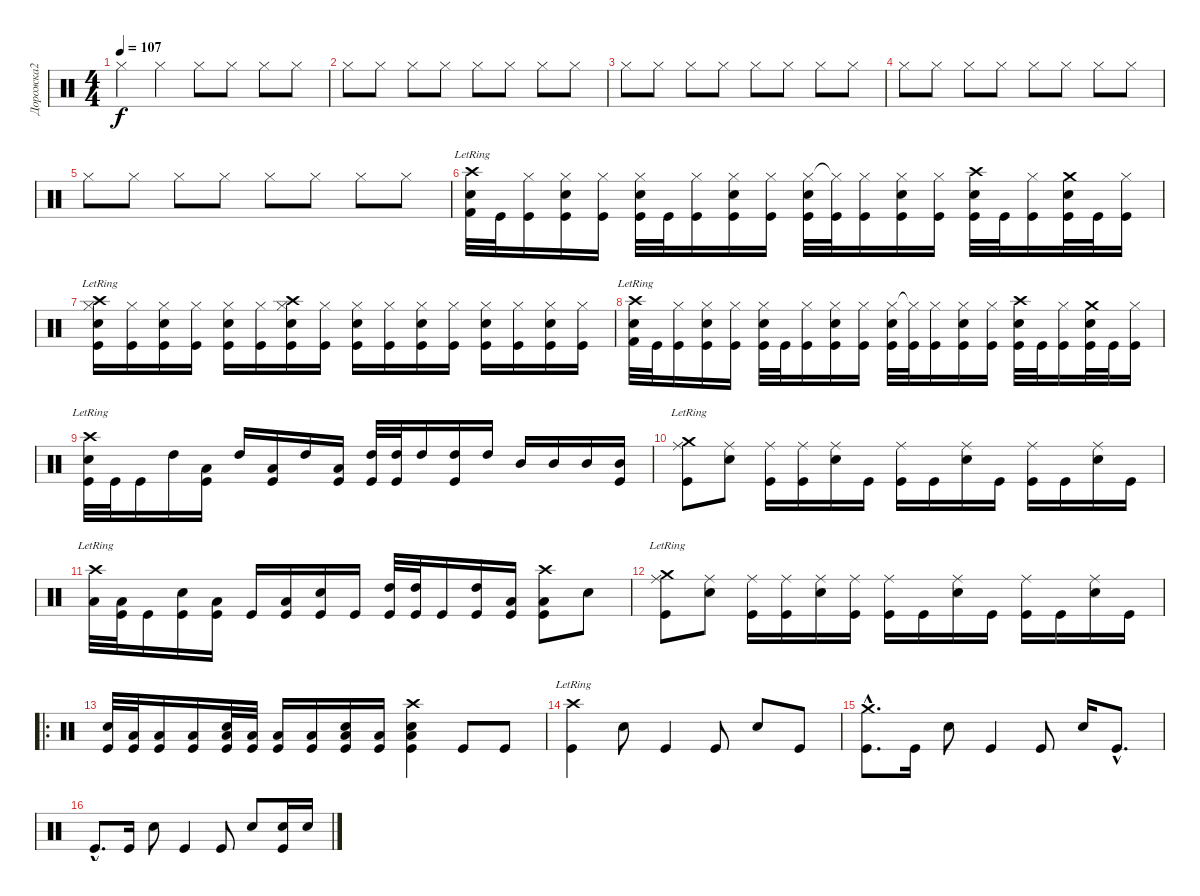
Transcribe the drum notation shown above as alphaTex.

\track ("Дорожка2" "Дорожка2") {instrument percussion}
\staff {score}
\articulation defaults
\ts (4 4)
\tempo 107
\clef neutral
\ks c "Hi-Hat (closed)".4{dy f} "Hi-Hat (closed)".4 "Hi-Hat (closed)".8 "Hi-Hat (closed)".8 "Hi-Hat (closed)".8 "Hi-Hat (closed)".8
|
"Hi-Hat (closed)".8 "Hi-Hat (closed)".8 "Hi-Hat (closed)".8 "Hi-Hat (closed)".8 "Hi-Hat (closed)".8 "Hi-Hat (closed)".8 "Hi-Hat (closed)".8 "Hi-Hat (closed)".8 |
"Hi-Hat (closed)".8 "Hi-Hat (closed)".8 "Hi-Hat (closed)".8 "Hi-Hat (closed)".8 "Hi-Hat (closed)".8 "Hi-Hat (closed)".8 "Hi-Hat (closed)".8 "Hi-Hat (closed)".8 |
"Hi-Hat (closed)".8 "Hi-Hat (closed)".8 "Hi-Hat (closed)".8 "Hi-Hat (closed)".8 "Hi-Hat (closed)".8 "Hi-Hat (closed)".8 "Hi-Hat (closed)".8 "Hi-Hat (closed)".8 |
"Hi-Hat (closed)".8 "Hi-Hat (closed)".8 "Hi-Hat (closed)".8 "Hi-Hat (closed)".8 "Hi-Hat (closed)".8 "Hi-Hat (closed)".8 "Hi-Hat (closed)".8 "Hi-Hat (closed)".8 |
("Crash high (hit)"{lr} "Electric Snare (hit)" "Kick (hit) 2").32 "Kick (hit)".32 ("Hi-Hat (closed)" "Kick (hit)").16 ("Hi-Hat (closed)" "Electric Snare (hit)" "Kick (hit)").16 ("Hi-Hat (closed)" "Kick (hit)").16 ("Hi-Hat (closed)" "Electric Snare (hit)" "Kick (hit)").32 "Kick (hit)".32 ("Hi-Hat (closed)" "Kick (hit)").16 ("Hi-Hat (closed)" "Electric Snare (hit)" "Kick (hit)").16 ("Hi-Hat (closed)" "Kick (hit)").16 ("Hi-Hat (closed)" "Electric Snare (hit)" "Kick (hit)").32 ("Hi-Hat (closed)"{t} "Kick (hit)").32 ("Hi-Hat (closed)" "Kick (hit)").16 ("Hi-Hat (closed)" "Electric Snare (hit)" "Kick (hit)").16 ("Hi-Hat (closed)" "Kick (hit)").16 ("Crash high (hit)" "Electric Snare (hit)" "Kick (hit)").32 "Kick (hit)".32 ("Hi-Hat (closed)" "Kick (hit)").16 ("Crash medium (hit)" "Electric Snare (hit)" "Kick (hit)").32 "Kick (hit)".32 ("Hi-Hat (closed)" "Kick (hit)").16 |
("Crash high (hit)"{lr} "Hi-Hat (closed)" "Electric Snare (hit)" "Kick (hit)").16 ("Hi-Hat (closed)" "Kick (hit)").16 ("Hi-Hat (closed)" "Electric Snare (hit)" "Kick (hit)").16 ("Hi-Hat (closed)" "Kick (hit)").16 ("Hi-Hat (closed)" "Electric Snare (hit)" "Kick (hit)").16 ("Hi-Hat (closed)" "Kick (hit)").16 ("Crash high (hit)" "Hi-Hat (closed)" "Electric Snare (hit)" "Kick (hit)").16 ("Hi-Hat (closed)" "Kick (hit)").16 ("Hi-Hat (closed)" "Electric Snare (hit)" "Kick (hit)").16 ("Hi-Hat (closed)" "Kick (hit)").16 ("Hi-Hat (closed)" "Electric Snare (hit)" "Kick (hit)").16 ("Hi-Hat (closed)" "Kick (hit)").16 ("Hi-Hat (closed)" "Electric Snare (hit)" "Kick (hit)").16 ("Hi-Hat (closed)" "Kick (hit)").16 ("Hi-Hat (closed)" "Electric Snare (hit)" "Kick (hit)").16 ("Hi-Hat (closed)" "Kick (hit)").16 |
("Crash high (hit)"{lr} "Electric Snare (hit)" "Kick (hit) 2").32 "Kick (hit)".32 ("Hi-Hat (closed)" "Kick (hit)").16 ("Hi-Hat (closed)" "Electric Snare (hit)" "Kick (hit)").16 ("Hi-Hat (closed)" "Kick (hit)").16 ("Hi-Hat (closed)" "Electric Snare (hit)" "Kick (hit)").32 "Kick (hit)".32 ("Hi-Hat (closed)" "Kick (hit)").16 ("Hi-Hat (closed)" "Electric Snare (hit)" "Kick (hit)").16 ("Hi-Hat (closed)" "Kick (hit)").16 ("Hi-Hat (closed)" "Electric Snare (hit)" "Kick (hit)").32 ("Hi-Hat (closed)"{t} "Kick (hit)").32 ("Hi-Hat (closed)" "Kick (hit)").16 ("Hi-Hat (closed)" "Electric Snare (hit)" "Kick (hit)").16 ("Hi-Hat (closed)" "Kick (hit)").16 ("Crash high (hit)" "Electric Snare (hit)" "Kick (hit)").32 "Kick (hit)".32 ("Hi-Hat (closed)" "Kick (hit)").16 ("Crash medium (hit)" "Electric Snare (hit)" "Kick (hit)").32 "Kick (hit)".32 ("Hi-Hat (closed)" "Kick (hit)").16 |
("Crash high (hit)"{lr} "Electric Snare (hit)" "Kick (hit)").32 "Kick (hit)".32 "Kick (hit)".16 "High Tom (hit)".16 ("Low Tom (hit)" "Kick (hit)").16 "High Tom (hit)".16 ("Low Tom (hit)" "Kick (hit)").16 "High Tom (hit)".16 ("Low Tom (hit)" "Kick (hit)").16 ("High Tom (hit)" "Kick (hit)").32 ("High Tom (hit)" "Kick (hit)").32 "High Tom (hit)".16 ("High Tom (hit)" "Kick (hit)").16 "High Tom (hit)".16 "Mid Tom (hit)".16 "Mid Tom (hit)".16 "Mid Tom (hit)".16 ("Mid Tom (hit)" "Kick (hit)").16 |
("Crash medium (hit)"{lr} "Ride (middle)" "Kick (hit)").8 ("Ride (middle)" "Electric Snare (hit)").8 ("Ride (middle)" "Kick (hit)").16 ("Ride (middle)" "Kick (hit)").16 ("Ride (middle)" "Electric Snare (hit)").16 "Kick (hit)".16 ("Ride (middle)" "Kick (hit)").16 "Kick (hit)".16 ("Ride (middle)" "Electric Snare (hit)").16 "Kick (hit)".16 ("Ride (middle)" "Kick (hit)").16 "Kick (hit)".16 ("Ride (middle)" "Electric Snare (hit)").16 "Kick (hit)".16 |
("Crash high (hit)"{lr} "Low Tom (hit)").32 ("Low Tom (hit)" "Kick (hit)").32 "Kick (hit)".16 ("Electric Snare (hit)" "Kick (hit)").16 ("Low Tom (hit)" "Kick (hit)").16 "Kick (hit)".16 ("Low Tom (hit)" "Kick (hit)").16 ("Electric Snare (hit)" "Kick (hit)").16 "Kick (hit)".16 ("High Tom (hit)" "Kick (hit)").32 ("High Tom (hit)" "Kick (hit)").32 "Kick (hit)".16 ("High Tom (hit)" "Kick (hit)").16 ("Low Tom (hit)" "Kick (hit)").16 ("Crash high (hit)" "Low Tom (hit)" "Kick (hit)").8 "Electric Snare (hit)".8 |
("Crash medium (hit)"{lr} "Ride (middle)" "Kick (hit)").8 ("Ride (middle)" "Electric Snare (hit)").8 ("Ride (middle)" "Kick (hit)").16 ("Ride (middle)" "Kick (hit)").16 ("Ride (middle)" "Electric Snare (hit)").16 ("Ride (middle)" "Kick (hit)").16 ("Ride (middle)" "Kick (hit)").16 "Kick (hit)".16 ("Ride (middle)" "Electric Snare (hit)").16 "Kick (hit)".16 ("Ride (middle)" "Kick (hit)").16 "Kick (hit)".16 ("Ride (middle)" "Electric Snare (hit)").16 "Kick (hit)".16 |
\ro
("Electric Snare (hit)" "Kick (hit)").32 ("Low Tom (hit)" "Kick (hit)").32 ("Low Tom (hit)" "Kick (hit)").16 ("Low Tom (hit)" "Kick (hit)").16 ("Electric Snare (hit)" "Low Tom (hit)" "Kick (hit)").32 ("Low Tom (hit)" "Kick (hit)").32 ("Low Tom (hit)" "Kick (hit)").16 ("Low Tom (hit)" "Kick (hit)").16 ("Electric Snare (hit)" "Low Tom (hit)" "Kick (hit)").16 ("Low Tom (hit)" "Kick (hit)").16 ("Crash high (hit)" "Electric Snare (hit)" "Low Tom (hit)" "Kick (hit)").4 "Kick (hit)".8 "Kick (hit)".8 |
("Crash high (hit)"{lr} "Kick (hit)").4 "Electric Snare (hit)".8 "Kick (hit)".4 "Kick (hit)".8 "Electric Snare (hit)".8 "Kick (hit)".8 |
("Crash medium (hit)"{hac} "Kick (hit)"{hac}).8{d} "Kick (hit)".16 "Electric Snare (hit)".8 "Kick (hit)".4 "Kick (hit)".8 "Electric Snare (hit)".16 "Kick (hit)"{hac}.8{d} |
"Kick (hit)"{hac}.8{d} "Kick (hit)".16 "Electric Snare (hit)".8 "Kick (hit)".4 "Kick (hit)".8 "Electric Snare (hit)".8 ("Electric Snare (hit)" "Kick (hit)").16 "Electric Snare (hit)".16
